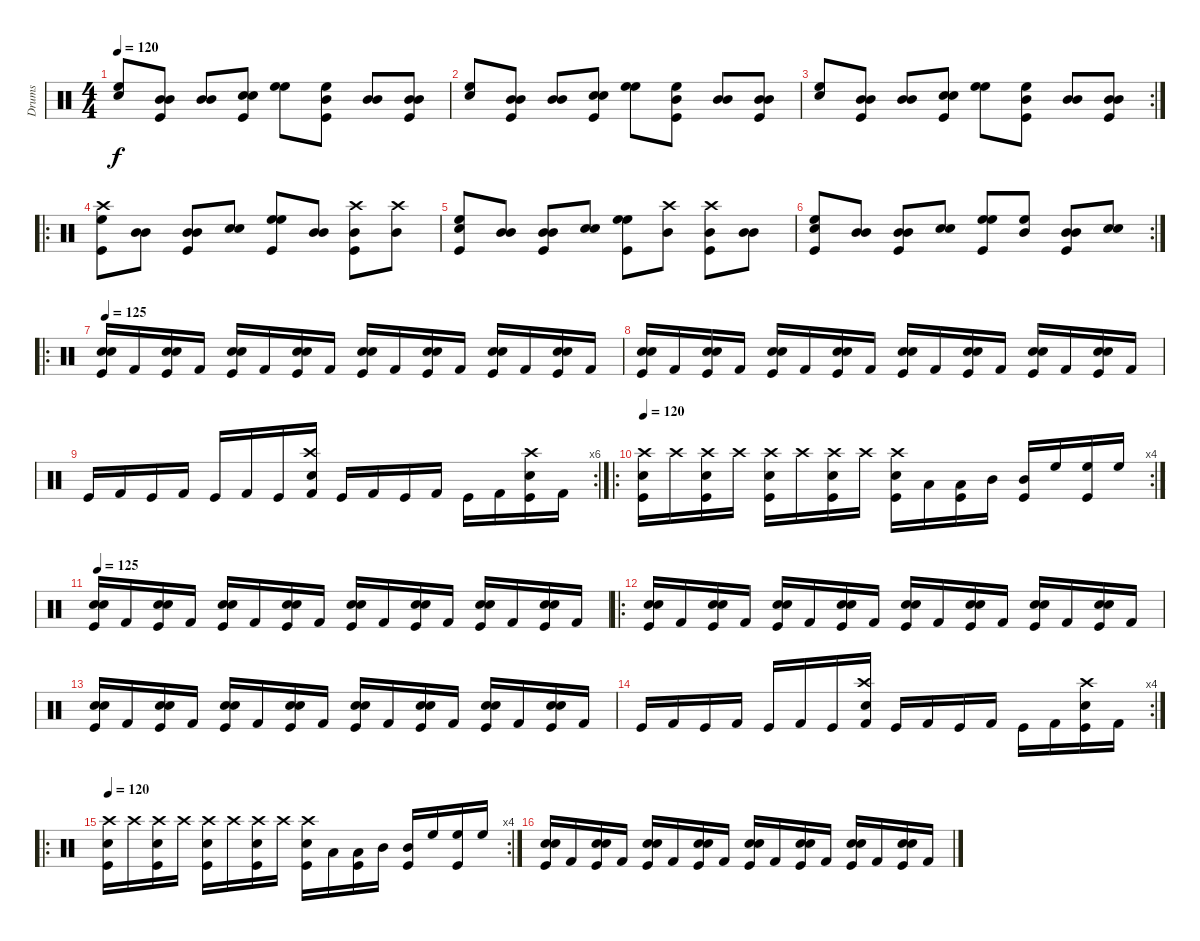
\track ("Drums" "Drums") {instrument percussion}
\staff {score}
\articulation defaults
\ts (4 4)
\tempo 120
\clef neutral
\ks c
("High Floor Tom (hit)" "Snare (hit) 2").8{dy f} ("Kick (hit)" "Mid Tom (hit)" "Mid Tom (hit)").8 ("Mid Tom (hit)" "Mid Tom (hit)").8 ("Kick (hit)" "Snare (hit) 2" "Snare (hit) 2").8 ("High Floor Tom (hit)" "High Floor Tom (hit)").8 ("Kick (hit)" "Mid Tom (hit)" "High Floor Tom (hit)").8 ("Mid Tom (hit)" "Mid Tom (hit)").8 ("Kick (hit)" "Mid Tom (hit)" "Mid Tom (hit)").8 |
("High Floor Tom (hit)" "Snare (hit) 2").8 ("Kick (hit)" "Mid Tom (hit)" "Mid Tom (hit)").8 ("Mid Tom (hit)" "Mid Tom (hit)").8 ("Kick (hit)" "Snare (hit) 2" "Snare (hit) 2").8 ("High Floor Tom (hit)" "High Floor Tom (hit)").8 ("Kick (hit)" "Mid Tom (hit)" "High Floor Tom (hit)").8 ("Mid Tom (hit)" "Mid Tom (hit)").8 ("Kick (hit)" "Mid Tom (hit)" "Mid Tom (hit)").8 |
\rc 2
("High Floor Tom (hit)" "Snare (hit) 2").8 ("Kick (hit)" "Mid Tom (hit)" "Mid Tom (hit)").8 ("Mid Tom (hit)" "Mid Tom (hit)").8 ("Kick (hit)" "Snare (hit) 2" "Snare (hit) 2").8 ("High Floor Tom (hit)" "High Floor Tom (hit)").8 ("Kick (hit)" "Mid Tom (hit)" "High Floor Tom (hit)").8 ("Mid Tom (hit)" "Mid Tom (hit)").8 ("Kick (hit)" "Mid Tom (hit)" "Mid Tom (hit)").8 |
\ro
("Kick (hit)" "High Floor Tom (hit)" "Crash high (hit)").8 ("Mid Tom (hit)" "Mid Tom (hit)").8 ("Kick (hit)" "Mid Tom (hit)" "Mid Tom (hit)").8 ("Snare (hit) 2" "Snare (hit) 2").8 ("Kick (hit)" "High Floor Tom (hit)" "High Floor Tom (hit)").8 ("Mid Tom (hit)" "Mid Tom (hit)").8 ("Kick (hit)" "Mid Tom (hit)" "Crash high (hit)").8 ("Mid Tom (hit)" "Crash high (hit)").8 |
("Kick (hit)" "High Floor Tom (hit)" "Snare (hit) 2").8 ("Mid Tom (hit)" "Mid Tom (hit)").8 ("Kick (hit)" "Mid Tom (hit)" "Mid Tom (hit)").8 ("Snare (hit) 2" "Snare (hit) 2").8 ("Kick (hit)" "High Floor Tom (hit)" "High Floor Tom (hit)").8 ("Mid Tom (hit)" "Crash high (hit)").8 ("Kick (hit)" "Mid Tom (hit)" "Crash high (hit)").8 ("Mid Tom (hit)" "Mid Tom (hit)").8 |
\rc 2
("Kick (hit)" "High Floor Tom (hit)" "Snare (hit) 2").8 ("Mid Tom (hit)" "Mid Tom (hit)").8 ("Kick (hit)" "Mid Tom (hit)" "Mid Tom (hit)").8 ("Snare (hit) 2" "Snare (hit) 2").8 ("Kick (hit)" "High Floor Tom (hit)" "High Floor Tom (hit)").8 ("Mid Tom (hit)" "High Floor Tom (hit)").8 ("Kick (hit)" "Mid Tom (hit)" "Mid Tom (hit)").8 ("Snare (hit) 2" "Snare (hit) 2").8 |
\ro
\tempo 125
("Kick (hit)" "Snare (hit) 2" "Snare (hit) 2").16 "Kick (hit) 2".16 ("Kick (hit)" "Snare (hit) 2" "Snare (hit) 2").16 "Kick (hit) 2".16 ("Kick (hit)" "Snare (hit) 2" "Snare (hit) 2").16 "Kick (hit) 2".16 ("Kick (hit)" "Snare (hit) 2" "Snare (hit) 2").16 "Kick (hit) 2".16 ("Kick (hit)" "Snare (hit) 2" "Snare (hit) 2").16 "Kick (hit) 2".16 ("Kick (hit)" "Snare (hit) 2" "Snare (hit) 2").16 "Kick (hit) 2".16 ("Kick (hit)" "Snare (hit) 2" "Snare (hit) 2").16 "Kick (hit) 2".16 ("Kick (hit)" "Snare (hit) 2" "Snare (hit) 2").16 "Kick (hit) 2".16 |
("Kick (hit)" "Snare (hit) 2" "Snare (hit) 2").16 "Kick (hit) 2".16 ("Kick (hit)" "Snare (hit) 2" "Snare (hit) 2").16 "Kick (hit) 2".16 ("Kick (hit)" "Snare (hit) 2" "Snare (hit) 2").16 "Kick (hit) 2".16 ("Kick (hit)" "Snare (hit) 2" "Snare (hit) 2").16 "Kick (hit) 2".16 ("Kick (hit)" "Snare (hit) 2" "Snare (hit) 2").16 "Kick (hit) 2".16 ("Kick (hit)" "Snare (hit) 2" "Snare (hit) 2").16 "Kick (hit) 2".16 ("Kick (hit)" "Snare (hit) 2" "Snare (hit) 2").16 "Kick (hit) 2".16 ("Kick (hit)" "Snare (hit) 2" "Snare (hit) 2").16 "Kick (hit) 2".16 |
\rc 6 "Kick (hit)".16 "Kick (hit) 2".16 "Kick (hit)".16 "Kick (hit) 2".16 "Kick (hit)".16 "Kick (hit) 2".16 "Kick (hit)".16
("Kick (hit) 2" "Snare (hit) 2" "Crash high (hit)").16 "Kick (hit)".16 "Kick (hit) 2".16 "Kick (hit)".16 "Kick (hit) 2".16 "Kick (hit)".16 "Kick (hit) 2".16 ("Kick (hit)" "Snare (hit) 2" "Crash high (hit)").16 "Kick (hit) 2".16 |
\ro
\rc 4
\tempo 120
("Kick (hit)" "Snare (hit) 2" "Crash high (hit)").16 "Crash high (hit)".16 ("Kick (hit)" "Snare (hit) 2" "Crash high (hit)").16 "Crash high (hit)".16 ("Kick (hit)" "Snare (hit) 2" "Crash high (hit)").16 "Crash high (hit)".16 ("Kick (hit)" "Snare (hit) 2" "Crash high (hit)").16 "Crash high (hit)".16 ("Kick (hit)" "Snare (hit) 2" "Crash high (hit)").16 "Low Tom (hit)".16 ("Kick (hit)" "Low Tom (hit)").16 "Mid Tom (hit)".16 ("Kick (hit)" "Mid Tom (hit)").16 "High Floor Tom (hit)".16 ("Kick (hit)" "High Floor Tom (hit)").16 "High Floor Tom (hit)".16 |
\tempo 125
("Kick (hit)" "Snare (hit) 2" "Snare (hit) 2").16 "Kick (hit) 2".16 ("Kick (hit)" "Snare (hit) 2" "Snare (hit) 2").16 "Kick (hit) 2".16 ("Kick (hit)" "Snare (hit) 2" "Snare (hit) 2").16 "Kick (hit) 2".16 ("Kick (hit)" "Snare (hit) 2" "Snare (hit) 2").16 "Kick (hit) 2".16 ("Kick (hit)" "Snare (hit) 2" "Snare (hit) 2").16 "Kick (hit) 2".16 ("Kick (hit)" "Snare (hit) 2" "Snare (hit) 2").16 "Kick (hit) 2".16 ("Kick (hit)" "Snare (hit) 2" "Snare (hit) 2").16 "Kick (hit) 2".16 ("Kick (hit)" "Snare (hit) 2" "Snare (hit) 2").16 "Kick (hit) 2".16 |
\ro
("Kick (hit)" "Snare (hit) 2" "Snare (hit) 2").16 "Kick (hit) 2".16 ("Kick (hit)" "Snare (hit) 2" "Snare (hit) 2").16 "Kick (hit) 2".16 ("Kick (hit)" "Snare (hit) 2" "Snare (hit) 2").16 "Kick (hit) 2".16 ("Kick (hit)" "Snare (hit) 2" "Snare (hit) 2").16 "Kick (hit) 2".16 ("Kick (hit)" "Snare (hit) 2" "Snare (hit) 2").16 "Kick (hit) 2".16 ("Kick (hit)" "Snare (hit) 2" "Snare (hit) 2").16 "Kick (hit) 2".16 ("Kick (hit)" "Snare (hit) 2" "Snare (hit) 2").16 "Kick (hit) 2".16 ("Kick (hit)" "Snare (hit) 2" "Snare (hit) 2").16 "Kick (hit) 2".16 |
("Kick (hit)" "Snare (hit) 2" "Snare (hit) 2").16 "Kick (hit) 2".16 ("Kick (hit)" "Snare (hit) 2" "Snare (hit) 2").16 "Kick (hit) 2".16 ("Kick (hit)" "Snare (hit) 2" "Snare (hit) 2").16 "Kick (hit) 2".16 ("Kick (hit)" "Snare (hit) 2" "Snare (hit) 2").16 "Kick (hit) 2".16 ("Kick (hit)" "Snare (hit) 2" "Snare (hit) 2").16 "Kick (hit) 2".16 ("Kick (hit)" "Snare (hit) 2" "Snare (hit) 2").16 "Kick (hit) 2".16 ("Kick (hit)" "Snare (hit) 2" "Snare (hit) 2").16 "Kick (hit) 2".16 ("Kick (hit)" "Snare (hit) 2" "Snare (hit) 2").16 "Kick (hit) 2".16 |
\rc 4 "Kick (hit)".16 "Kick (hit) 2".16 "Kick (hit)".16 "Kick (hit) 2".16 "Kick (hit)".16 "Kick (hit) 2".16 "Kick (hit)".16
("Kick (hit) 2" "Snare (hit) 2" "Crash high (hit)").16 "Kick (hit)".16 "Kick (hit) 2".16 "Kick (hit)".16 "Kick (hit) 2".16 "Kick (hit)".16 "Kick (hit) 2".16 ("Kick (hit)" "Snare (hit) 2" "Crash high (hit)").16 "Kick (hit) 2".16 |
\ro
\rc 4
\tempo 120
("Kick (hit)" "Snare (hit) 2" "Crash high (hit)").16 "Crash high (hit)".16 ("Kick (hit)" "Snare (hit) 2" "Crash high (hit)").16 "Crash high (hit)".16 ("Kick (hit)" "Snare (hit) 2" "Crash high (hit)").16 "Crash high (hit)".16 ("Kick (hit)" "Snare (hit) 2" "Crash high (hit)").16 "Crash high (hit)".16 ("Kick (hit)" "Snare (hit) 2" "Crash high (hit)").16 "Low Tom (hit)".16 ("Kick (hit)" "Low Tom (hit)").16 "Mid Tom (hit)".16 ("Kick (hit)" "Mid Tom (hit)").16 "High Floor Tom (hit)".16 ("Kick (hit)" "High Floor Tom (hit)").16 "High Floor Tom (hit)".16 |
("Kick (hit)" "Snare (hit) 2" "Snare (hit) 2").16 "Kick (hit) 2".16 ("Kick (hit)" "Snare (hit) 2" "Snare (hit) 2").16 "Kick (hit) 2".16 ("Kick (hit)" "Snare (hit) 2" "Snare (hit) 2").16 "Kick (hit) 2".16 ("Kick (hit)" "Snare (hit) 2" "Snare (hit) 2").16 "Kick (hit) 2".16 ("Kick (hit)" "Snare (hit) 2" "Snare (hit) 2").16 "Kick (hit) 2".16 ("Kick (hit)" "Snare (hit) 2" "Snare (hit) 2").16 "Kick (hit) 2".16 ("Kick (hit)" "Snare (hit) 2" "Snare (hit) 2").16 "Kick (hit) 2".16 ("Kick (hit)" "Snare (hit) 2" "Snare (hit) 2").16 "Kick (hit) 2".16
